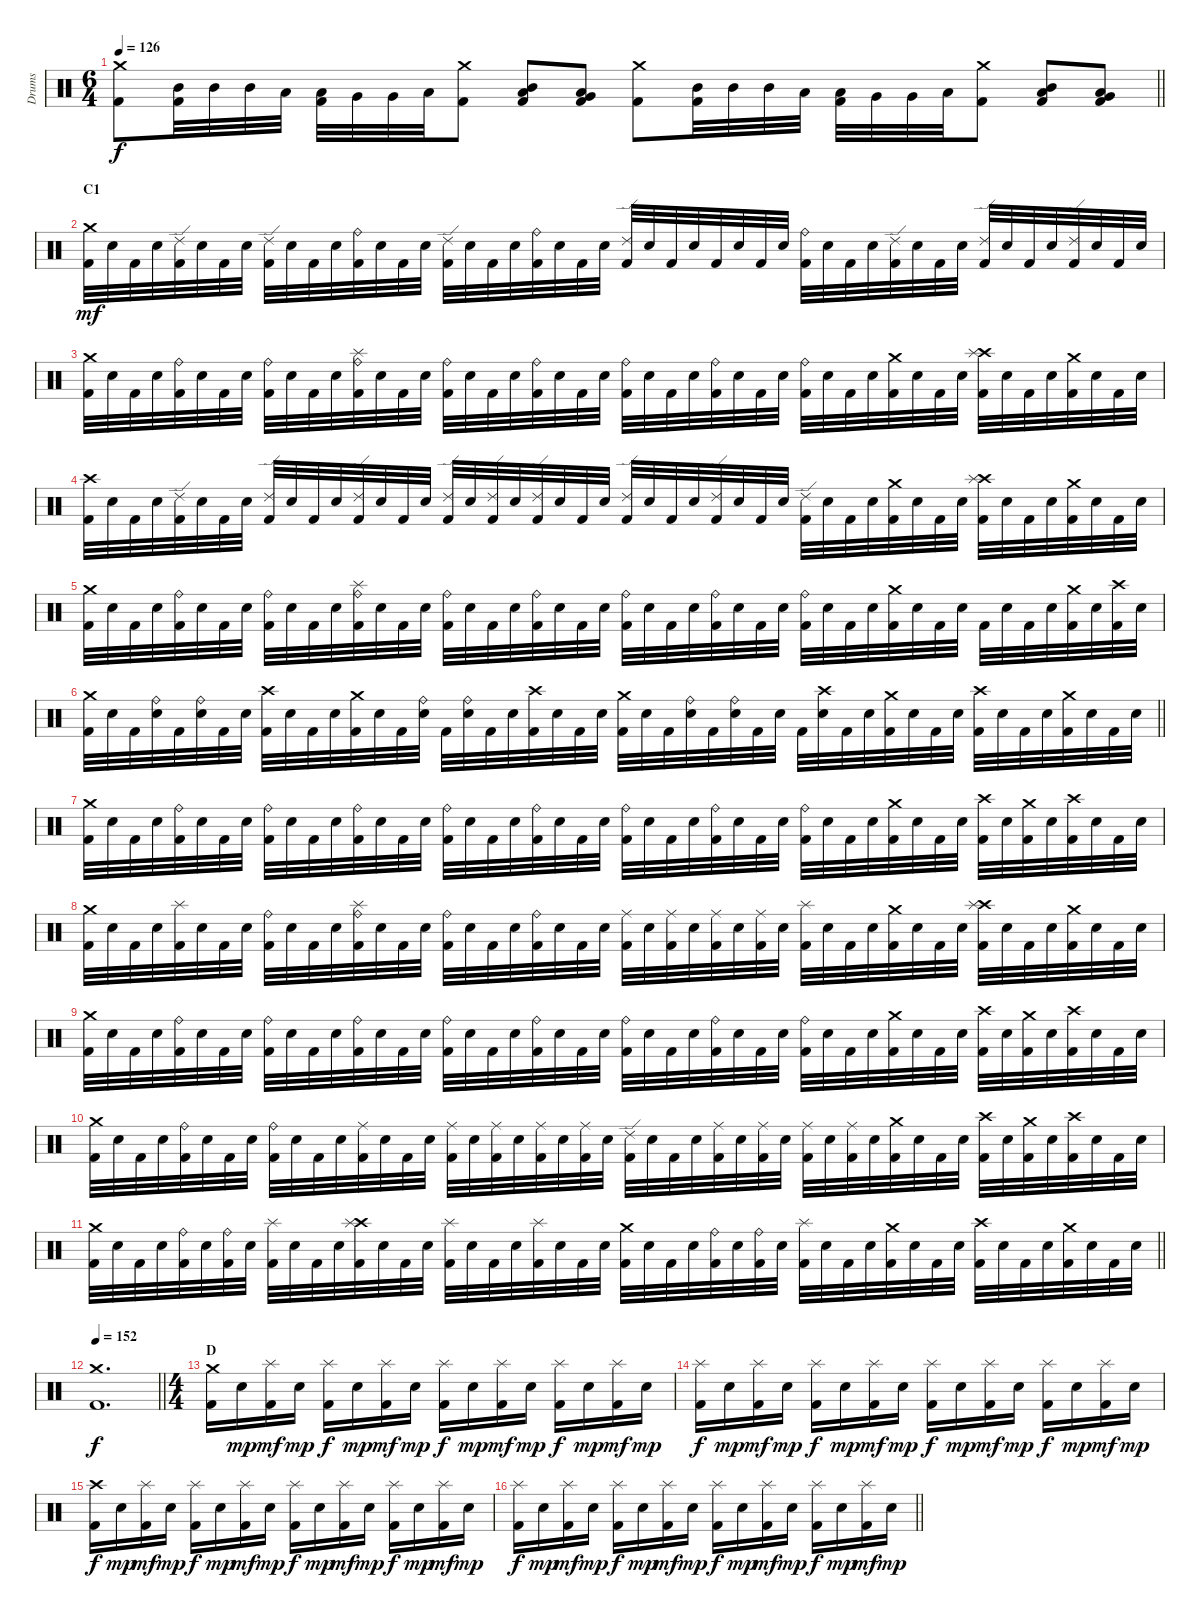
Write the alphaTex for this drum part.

\track ("Drums" "Drums") {instrument percussion}
\staff {score}
\articulation defaults
\ts (6 4)
\tempo 126
\clef neutral
\barLineRight lightlight
\ks c
("Crash medium (hit)" "Kick (hit) 2").8{dy f} ("Mid Tom (hit)" "Kick (hit) 2").32 "Mid Tom (hit)".32 "Mid Tom (hit)".32 "Low Tom (hit)".32 ("Low Tom (hit)" "Kick (hit) 2").32 "Very Low Tom (hit)".32 "Very Low Tom (hit)".32 "Low Floor Tom (hit)".32 ("Crash medium (hit)" "Kick (hit) 2").8 ("Mid Tom (hit)" "Low Tom (hit)" "Kick (hit) 2").8 ("Low Tom (hit)" "Very Low Tom (hit)" "Kick (hit) 2").8 ("Crash medium (hit)" "Kick (hit) 2").8 ("Mid Tom (hit)" "Kick (hit) 2").32 "Mid Tom (hit)".32 "Mid Tom (hit)".32 "Low Tom (hit)".32 ("Low Tom (hit)" "Kick (hit) 2").32 "Very Low Tom (hit)".32 "Very Low Tom (hit)".32 "Low Floor Tom (hit)".32 ("Crash medium (hit)" "Kick (hit) 2").8 ("Mid Tom (hit)" "Low Tom (hit)" "Kick (hit) 2").8 ("Low Tom (hit)" "Very Low Tom (hit)" "Kick (hit) 2").8 |
\section ("" "C1")
("Crash medium (hit)" "Kick (hit) 2").32{dy mf} "Electric Snare (hit)".32 "Kick (hit) 2".32 "Electric Snare (hit)".32 ("Ride (edge) 2" "Kick (hit) 2").32 "Electric Snare (hit)".32 "Kick (hit) 2".32 "Electric Snare (hit)".32 ("Ride (edge) 2" "Kick (hit) 2").32 "Electric Snare (hit)".32 "Kick (hit) 2".32 "Electric Snare (hit)".32 ("Ride (bell)" "Kick (hit) 2").32 "Electric Snare (hit)".32 "Kick (hit) 2".32 "Electric Snare (hit)".32 ("Ride (edge) 2" "Kick (hit) 2").32 "Electric Snare (hit)".32 "Kick (hit) 2".32 "Electric Snare (hit)".32 ("Ride (bell)" "Kick (hit) 2").32 "Electric Snare (hit)".32 "Kick (hit) 2".32 "Electric Snare (hit)".32 ("Ride (edge) 2" "Kick (hit) 2").32 "Electric Snare (hit)".32 "Kick (hit) 2".32 "Electric Snare (hit)".32 "Kick (hit) 2".32 "Electric Snare (hit)".32 "Kick (hit) 2".32 "Electric Snare (hit)".32 ("Ride (bell)" "Kick (hit) 2").32 "Electric Snare (hit)".32 "Kick (hit) 2".32 "Electric Snare (hit)".32 ("Ride (edge) 2" "Kick (hit) 2").32 "Electric Snare (hit)".32 "Kick (hit) 2".32 "Electric Snare (hit)".32 ("Ride (edge) 2" "Kick (hit) 2").32 "Electric Snare (hit)".32 "Kick (hit) 2".32 "Electric Snare (hit)".32 ("Ride (edge) 2" "Kick (hit) 2").32 "Electric Snare (hit)".32 "Kick (hit) 2".32 "Electric Snare (hit)".32 |
("Crash medium (hit)" "Kick (hit) 2").32 "Electric Snare (hit)".32 "Kick (hit) 2".32 "Electric Snare (hit)".32 ("Ride (bell)" "Kick (hit) 2").32 "Electric Snare (hit)".32 "Kick (hit) 2".32 "Electric Snare (hit)".32 ("Ride (bell)" "Kick (hit) 2").32 "Electric Snare (hit)".32 "Kick (hit) 2".32 "Electric Snare (hit)".32 ("Ride (bell)" "Splash (hit)" "Kick (hit) 2").32 "Electric Snare (hit)".32 "Kick (hit) 2".32 "Electric Snare (hit)".32 ("Ride (bell)" "Kick (hit) 2").32 "Electric Snare (hit)".32 "Kick (hit) 2".32 "Electric Snare (hit)".32 ("Ride (bell)" "Kick (hit) 2").32 "Electric Snare (hit)".32 "Kick (hit) 2".32 "Electric Snare (hit)".32 ("Ride (bell)" "Kick (hit) 2").32 "Electric Snare (hit)".32 "Kick (hit) 2".32 "Electric Snare (hit)".32 ("Ride (bell)" "Kick (hit) 2").32 "Electric Snare (hit)".32 "Kick (hit) 2".32 "Electric Snare (hit)".32 ("Ride (bell)" "Kick (hit) 2").32 "Electric Snare (hit)".32 "Kick (hit) 2".32 "Electric Snare (hit)".32 ("Crash medium (hit)" "Kick (hit) 2").32 "Electric Snare (hit)".32 "Kick (hit) 2".32 "Electric Snare (hit)".32 ("Crash high (hit)" "Splash (hit)" "Kick (hit) 2").32 "Electric Snare (hit)".32 "Kick (hit) 2".32 "Electric Snare (hit)".32 ("Crash medium (hit)" "Kick (hit) 2").32 "Electric Snare (hit)".32 "Kick (hit) 2".32 "Electric Snare (hit)".32 |
("Crash high (hit)" "Kick (hit) 2").32 "Electric Snare (hit)".32 "Kick (hit) 2".32 "Electric Snare (hit)".32 ("Ride (edge) 2" "Kick (hit) 2").32 "Electric Snare (hit)".32 "Kick (hit) 2".32 "Electric Snare (hit)".32 ("Ride (edge) 2" "Kick (hit) 2").32 "Electric Snare (hit)".32 "Kick (hit) 2".32 "Electric Snare (hit)".32 ("Ride (edge) 2" "Kick (hit) 2").32 "Electric Snare (hit)".32 "Kick (hit) 2".32 "Electric Snare (hit)".32 ("Ride (edge) 2" "Kick (hit) 2").32 "Electric Snare (hit)".32 ("Ride (edge) 2" "Kick (hit) 2").32 "Electric Snare (hit)".32 ("Ride (edge) 2" "Kick (hit) 2").32 "Electric Snare (hit)".32 "Kick (hit) 2".32 "Electric Snare (hit)".32 ("Ride (edge) 2" "Kick (hit) 2").32 "Electric Snare (hit)".32 "Kick (hit) 2".32 "Electric Snare (hit)".32 ("Ride (edge) 2" "Kick (hit) 2").32 "Electric Snare (hit)".32 "Kick (hit) 2".32 "Electric Snare (hit)".32 ("Ride (edge) 2" "Kick (hit) 2").32 "Electric Snare (hit)".32 "Kick (hit) 2".32 "Electric Snare (hit)".32 ("Crash medium (hit)" "Kick (hit) 2").32 "Electric Snare (hit)".32 "Kick (hit) 2".32 "Electric Snare (hit)".32 ("Crash high (hit)" "Splash (hit)" "Kick (hit) 2").32 "Electric Snare (hit)".32 "Kick (hit) 2".32 "Electric Snare (hit)".32 ("Crash medium (hit)" "Kick (hit) 2").32 "Electric Snare (hit)".32 "Kick (hit) 2".32 "Electric Snare (hit)".32 |
("Crash medium (hit)" "Kick (hit) 2").32 "Electric Snare (hit)".32 "Kick (hit) 2".32 "Electric Snare (hit)".32 ("Ride (bell)" "Kick (hit) 2").32 "Electric Snare (hit)".32 "Kick (hit) 2".32 "Electric Snare (hit)".32 ("Ride (bell)" "Kick (hit) 2").32 "Electric Snare (hit)".32 "Kick (hit) 2".32 "Electric Snare (hit)".32 ("Ride (bell)" "Splash (hit)" "Kick (hit) 2").32 "Electric Snare (hit)".32 "Kick (hit) 2".32 "Electric Snare (hit)".32 ("Ride (bell)" "Kick (hit) 2").32 "Electric Snare (hit)".32 "Kick (hit) 2".32 "Electric Snare (hit)".32 ("Ride (bell)" "Kick (hit) 2").32 "Electric Snare (hit)".32 "Kick (hit) 2".32 "Electric Snare (hit)".32 ("Ride (bell)" "Kick (hit) 2").32 "Electric Snare (hit)".32 "Kick (hit) 2".32 "Electric Snare (hit)".32 ("Ride (bell)" "Kick (hit) 2").32 "Electric Snare (hit)".32 "Kick (hit) 2".32 "Electric Snare (hit)".32 ("Ride (bell)" "Kick (hit) 2").32 "Electric Snare (hit)".32 "Kick (hit) 2".32 "Electric Snare (hit)".32 ("Crash medium (hit)" "Kick (hit) 2").32 "Electric Snare (hit)".32 "Kick (hit) 2".32 "Electric Snare (hit)".32 "Kick (hit) 2".32 "Electric Snare (hit)".32 "Kick (hit) 2".32 "Electric Snare (hit)".32 ("Crash medium (hit)" "Kick (hit) 2").32 "Electric Snare (hit)".32 ("Crash high (hit)" "Kick (hit) 2").32 "Electric Snare (hit)".32 |
\barLineRight lightlight
("Crash medium (hit)" "Kick (hit) 2").32 "Electric Snare (hit)".32 "Kick (hit) 2".32 ("Ride (bell)" "Electric Snare (hit)").32 "Kick (hit) 2".32 ("Ride (bell)" "Electric Snare (hit)").32 "Kick (hit) 2".32 "Electric Snare (hit)".32 ("Crash high (hit)" "Kick (hit) 2").32 "Electric Snare (hit)".32 "Kick (hit) 2".32 "Electric Snare (hit)".32 ("Crash medium (hit)" "Kick (hit) 2").32 "Electric Snare (hit)".32 "Kick (hit) 2".32 ("Ride (bell)" "Electric Snare (hit)").32 "Kick (hit) 2".32 ("Ride (bell)" "Electric Snare (hit)").32 "Kick (hit) 2".32 "Electric Snare (hit)".32 ("Crash high (hit)" "Kick (hit) 2").32 "Electric Snare (hit)".32 "Kick (hit) 2".32 "Electric Snare (hit)".32 ("Crash medium (hit)" "Kick (hit) 2").32 "Electric Snare (hit)".32 "Kick (hit) 2".32 ("Ride (bell)" "Electric Snare (hit)").32 "Kick (hit) 2".32 ("Ride (bell)" "Electric Snare (hit)").32 "Kick (hit) 2".32 "Electric Snare (hit)".32 "Kick (hit) 2".32 ("Crash high (hit)" "Electric Snare (hit)").32 "Kick (hit) 2".32 "Electric Snare (hit)".32 ("Crash medium (hit)" "Kick (hit) 2").32 "Electric Snare (hit)".32 "Kick (hit) 2".32 "Electric Snare (hit)".32 ("Crash high (hit)" "Kick (hit) 2").32 "Electric Snare (hit)".32 "Kick (hit) 2".32 "Electric Snare (hit)".32 ("Crash medium (hit)" "Kick (hit) 2").32 "Electric Snare (hit)".32 "Kick (hit) 2".32 "Electric Snare (hit)".32 |
\section ("" "")
("Crash medium (hit)" "Kick (hit) 2").32 "Electric Snare (hit)".32 "Kick (hit) 2".32 "Electric Snare (hit)".32 ("Ride (bell)" "Kick (hit) 2").32 "Electric Snare (hit)".32 "Kick (hit) 2".32 "Electric Snare (hit)".32 ("Ride (bell)" "Kick (hit) 2").32 "Electric Snare (hit)".32 "Kick (hit) 2".32 "Electric Snare (hit)".32 ("Ride (bell)" "Kick (hit) 2").32 "Electric Snare (hit)".32 "Kick (hit) 2".32 "Electric Snare (hit)".32 ("Ride (bell)" "Kick (hit) 2").32 "Electric Snare (hit)".32 "Kick (hit) 2".32 "Electric Snare (hit)".32 ("Ride (bell)" "Kick (hit) 2").32 "Electric Snare (hit)".32 "Kick (hit) 2".32 "Electric Snare (hit)".32 ("Ride (bell)" "Kick (hit) 2").32 "Electric Snare (hit)".32 "Kick (hit) 2".32 "Electric Snare (hit)".32 ("Ride (bell)" "Kick (hit) 2").32 "Electric Snare (hit)".32 "Kick (hit) 2".32 "Electric Snare (hit)".32 ("Ride (bell)" "Kick (hit) 2").32 "Electric Snare (hit)".32 "Kick (hit) 2".32 "Electric Snare (hit)".32 ("Crash medium (hit)" "Kick (hit) 2").32 "Electric Snare (hit)".32 "Kick (hit) 2".32 "Electric Snare (hit)".32 ("Crash high (hit)" "Kick (hit) 2").32 "Electric Snare (hit)".32 ("Crash medium (hit)" "Kick (hit) 2").32 "Electric Snare (hit)".32 ("Crash high (hit)" "Kick (hit) 2").32 "Electric Snare (hit)".32 "Kick (hit) 2".32 "Electric Snare (hit)".32 |
("Crash medium (hit)" "Kick (hit) 2").32 "Electric Snare (hit)".32 "Kick (hit) 2".32 "Electric Snare (hit)".32 ("Splash (hit)" "Kick (hit) 2").32 "Electric Snare (hit)".32 "Kick (hit) 2".32 "Electric Snare (hit)".32 ("Ride (bell)" "Kick (hit) 2").32 "Electric Snare (hit)".32 "Kick (hit) 2".32 "Electric Snare (hit)".32 ("Ride (bell)" "Splash (hit)" "Kick (hit) 2").32 "Electric Snare (hit)".32 "Kick (hit) 2".32 "Electric Snare (hit)".32 ("Ride (bell)" "Kick (hit) 2").32 "Electric Snare (hit)".32 "Kick (hit) 2".32 "Electric Snare (hit)".32 ("Ride (bell)" "Kick (hit) 2").32 "Electric Snare (hit)".32 "Kick (hit) 2".32 "Electric Snare (hit)".32 ("Ride (middle)" "Kick (hit) 2").32 "Electric Snare (hit)".32 ("Ride (middle)" "Kick (hit) 2").32 "Electric Snare (hit)".32 ("Ride (middle)" "Kick (hit) 2").32 "Electric Snare (hit)".32 ("Ride (middle)" "Kick (hit) 2").32 "Electric Snare (hit)".32 ("Splash (hit)" "Kick (hit) 2").32 "Electric Snare (hit)".32 "Kick (hit) 2".32 "Electric Snare (hit)".32 ("Crash medium (hit)" "Kick (hit) 2").32 "Electric Snare (hit)".32 "Kick (hit) 2".32 "Electric Snare (hit)".32 ("Crash high (hit)" "Splash (hit)" "Kick (hit) 2").32 "Electric Snare (hit)".32 "Kick (hit) 2".32 "Electric Snare (hit)".32 ("Crash medium (hit)" "Kick (hit) 2").32 "Electric Snare (hit)".32 "Kick (hit) 2".32 "Electric Snare (hit)".32 |
("Crash medium (hit)" "Kick (hit) 2").32 "Electric Snare (hit)".32 "Kick (hit) 2".32 "Electric Snare (hit)".32 ("Ride (bell)" "Kick (hit) 2").32 "Electric Snare (hit)".32 "Kick (hit) 2".32 "Electric Snare (hit)".32 ("Ride (bell)" "Kick (hit) 2").32 "Electric Snare (hit)".32 "Kick (hit) 2".32 "Electric Snare (hit)".32 ("Ride (bell)" "Kick (hit) 2").32 "Electric Snare (hit)".32 "Kick (hit) 2".32 "Electric Snare (hit)".32 ("Ride (bell)" "Kick (hit) 2").32 "Electric Snare (hit)".32 "Kick (hit) 2".32 "Electric Snare (hit)".32 ("Ride (bell)" "Kick (hit) 2").32 "Electric Snare (hit)".32 "Kick (hit) 2".32 "Electric Snare (hit)".32 ("Ride (bell)" "Kick (hit) 2").32 "Electric Snare (hit)".32 "Kick (hit) 2".32 "Electric Snare (hit)".32 ("Ride (bell)" "Kick (hit) 2").32 "Electric Snare (hit)".32 "Kick (hit) 2".32 "Electric Snare (hit)".32 ("Ride (bell)" "Kick (hit) 2").32 "Electric Snare (hit)".32 "Kick (hit) 2".32 "Electric Snare (hit)".32 ("Crash medium (hit)" "Kick (hit) 2").32 "Electric Snare (hit)".32 "Kick (hit) 2".32 "Electric Snare (hit)".32 ("Crash high (hit)" "Kick (hit) 2").32 "Electric Snare (hit)".32 ("Crash medium (hit)" "Kick (hit) 2").32 "Electric Snare (hit)".32 ("Crash high (hit)" "Kick (hit) 2").32 "Electric Snare (hit)".32 "Kick (hit) 2".32 "Electric Snare (hit)".32 |
("Crash medium (hit)" "Kick (hit) 2").32 "Electric Snare (hit)".32 "Kick (hit) 2".32 "Electric Snare (hit)".32 ("Ride (bell)" "Kick (hit) 2").32 "Electric Snare (hit)".32 "Kick (hit) 2".32 "Electric Snare (hit)".32 ("Ride (bell)" "Kick (hit) 2").32 "Electric Snare (hit)".32 "Kick (hit) 2".32 "Electric Snare (hit)".32 ("Ride (middle)" "Kick (hit) 2").32 "Electric Snare (hit)".32 "Kick (hit) 2".32 "Electric Snare (hit)".32 ("Ride (middle)" "Kick (hit) 2").32 "Electric Snare (hit)".32 ("Ride (middle)" "Kick (hit) 2").32 "Electric Snare (hit)".32 ("Ride (middle)" "Kick (hit) 2").32 "Electric Snare (hit)".32 ("Ride (middle)" "Kick (hit) 2").32 "Electric Snare (hit)".32 ("Ride (edge) 2" "Kick (hit) 2").32 "Electric Snare (hit)".32 "Kick (hit) 2".32 "Electric Snare (hit)".32 ("Ride (middle)" "Kick (hit) 2").32 "Electric Snare (hit)".32 ("Ride (middle)" "Kick (hit) 2").32 "Electric Snare (hit)".32 ("Ride (middle)" "Kick (hit) 2").32 "Electric Snare (hit)".32 ("Ride (middle)" "Kick (hit) 2").32 "Electric Snare (hit)".32 ("Crash medium (hit)" "Kick (hit) 2").32 "Electric Snare (hit)".32 "Kick (hit) 2".32 "Electric Snare (hit)".32 ("Crash high (hit)" "Kick (hit) 2").32 "Electric Snare (hit)".32 ("Crash medium (hit)" "Kick (hit) 2").32 "Electric Snare (hit)".32 ("Crash high (hit)" "Kick (hit) 2").32 "Electric Snare (hit)".32 "Kick (hit) 2".32 "Electric Snare (hit)".32 |
\barLineRight lightlight
("Crash medium (hit)" "Kick (hit) 2").32 "Electric Snare (hit)".32 "Kick (hit) 2".32 "Electric Snare (hit)".32 ("Ride (bell)" "Kick (hit) 2").32 "Electric Snare (hit)".32 ("Ride (bell)" "Kick (hit) 2").32 "Electric Snare (hit)".32 ("Splash (hit)" "Kick (hit) 2").32 "Electric Snare (hit)".32 "Kick (hit) 2".32 "Electric Snare (hit)".32 ("Crash high (hit)" "Splash (hit)" "Kick (hit) 2").32 "Electric Snare (hit)".32 "Kick (hit) 2".32 "Electric Snare (hit)".32 ("Splash (hit)" "Kick (hit) 2").32 "Electric Snare (hit)".32 "Kick (hit) 2".32 "Electric Snare (hit)".32 ("Splash (hit)" "Kick (hit) 2").32 "Electric Snare (hit)".32 "Kick (hit) 2".32 "Electric Snare (hit)".32 ("Crash medium (hit)" "Kick (hit) 2").32 "Electric Snare (hit)".32 "Kick (hit) 2".32 "Electric Snare (hit)".32 ("Ride (bell)" "Kick (hit) 2").32 "Electric Snare (hit)".32 ("Ride (bell)" "Kick (hit) 2").32 "Electric Snare (hit)".32 ("Splash (hit)" "Kick (hit) 2").32 "Electric Snare (hit)".32 "Kick (hit) 2".32 "Electric Snare (hit)".32 ("Crash medium (hit)" "Kick (hit) 2").32 "Electric Snare (hit)".32 "Kick (hit) 2".32 "Electric Snare (hit)".32 ("Crash high (hit)" "Kick (hit) 2").32 "Electric Snare (hit)".32 "Kick (hit) 2".32 "Electric Snare (hit)".32 ("Crash medium (hit)" "Kick (hit) 2").32 "Electric Snare (hit)".32 "Kick (hit) 2".32 "Electric Snare (hit)".32 |
\tempo 152
\barLineRight lightlight
("Crash medium (hit)" "Kick (hit) 2").1{d dy f} |
\ts (4 4)
\section ("" "D")
("Crash medium (hit)" "Kick (hit) 2").16 "Electric Snare (hit)".16{dy mp} ("Splash (hit)" "Kick (hit) 2").16{dy mf} "Electric Snare (hit)".16{dy mp} ("Splash (hit)" "Kick (hit) 2").16{dy f} "Electric Snare (hit)".16{dy mp} ("Splash (hit)" "Kick (hit) 2").16{dy mf} "Electric Snare (hit)".16{dy mp} ("Splash (hit)" "Kick (hit) 2").16{dy f} "Electric Snare (hit)".16{dy mp} ("Splash (hit)" "Kick (hit) 2").16{dy mf} "Electric Snare (hit)".16{dy mp} ("Splash (hit)" "Kick (hit) 2").16{dy f} "Electric Snare (hit)".16{dy mp} ("Splash (hit)" "Kick (hit) 2").16{dy mf} "Electric Snare (hit)".16{dy mp} |
("Splash (hit)" "Kick (hit) 2").16{dy f} "Electric Snare (hit)".16{dy mp} ("Splash (hit)" "Kick (hit) 2").16{dy mf} "Electric Snare (hit)".16{dy mp} ("Splash (hit)" "Kick (hit) 2").16{dy f} "Electric Snare (hit)".16{dy mp} ("Splash (hit)" "Kick (hit) 2").16{dy mf} "Electric Snare (hit)".16{dy mp} ("Splash (hit)" "Kick (hit) 2").16{dy f} "Electric Snare (hit)".16{dy mp} ("Splash (hit)" "Kick (hit) 2").16{dy mf} "Electric Snare (hit)".16{dy mp} ("Splash (hit)" "Kick (hit) 2").16{dy f} "Electric Snare (hit)".16{dy mp} ("Splash (hit)" "Kick (hit) 2").16{dy mf} "Electric Snare (hit)".16{dy mp} |
("Crash high (hit)" "Kick (hit) 2").16{dy f} "Electric Snare (hit)".16{dy mp} ("Splash (hit)" "Kick (hit) 2").16{dy mf} "Electric Snare (hit)".16{dy mp} ("Splash (hit)" "Kick (hit) 2").16{dy f} "Electric Snare (hit)".16{dy mp} ("Splash (hit)" "Kick (hit) 2").16{dy mf} "Electric Snare (hit)".16{dy mp} ("Splash (hit)" "Kick (hit) 2").16{dy f} "Electric Snare (hit)".16{dy mp} ("Splash (hit)" "Kick (hit) 2").16{dy mf} "Electric Snare (hit)".16{dy mp} ("Splash (hit)" "Kick (hit) 2").16{dy f} "Electric Snare (hit)".16{dy mp} ("Splash (hit)" "Kick (hit) 2").16{dy mf} "Electric Snare (hit)".16{dy mp} |
\barLineRight lightlight
("Splash (hit)" "Kick (hit) 2").16{dy f} "Electric Snare (hit)".16{dy mp} ("Splash (hit)" "Kick (hit) 2").16{dy mf} "Electric Snare (hit)".16{dy mp} ("Splash (hit)" "Kick (hit) 2").16{dy f} "Electric Snare (hit)".16{dy mp} ("Splash (hit)" "Kick (hit) 2").16{dy mf} "Electric Snare (hit)".16{dy mp} ("Splash (hit)" "Kick (hit) 2").16{dy f} "Electric Snare (hit)".16{dy mp} ("Splash (hit)" "Kick (hit) 2").16{dy mf} "Electric Snare (hit)".16{dy mp} ("Splash (hit)" "Kick (hit) 2").16{dy f} "Electric Snare (hit)".16{dy mp} ("Splash (hit)" "Kick (hit) 2").16{dy mf} "Electric Snare (hit)".16{dy mp}
